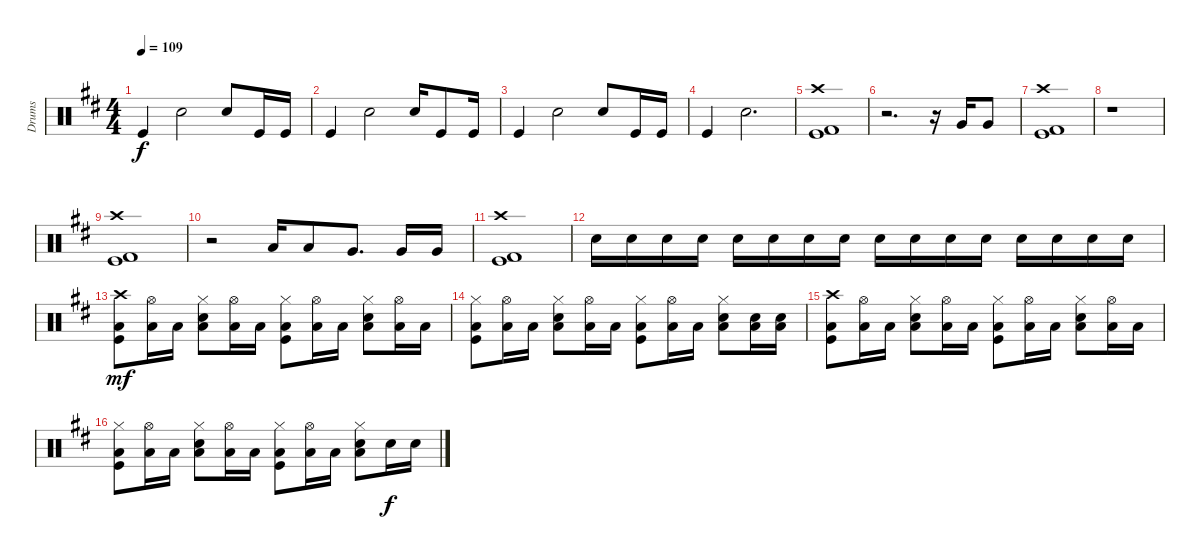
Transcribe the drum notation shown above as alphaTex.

\track ("Drums" "Drums") {instrument percussion}
\staff {score}
\articulation defaults
\ts (4 4)
\tempo 109
\clef neutral
\ks d "Kick (hit)".4{dy f} "Snare (hit) 2".2 "Snare (hit) 2".8 "Kick (hit)".16 "Kick (hit)".16
|
"Kick (hit)".4 "Snare (hit) 2".2 "Snare (hit) 2".16 "Kick (hit)".8 "Kick (hit)".16 |
"Kick (hit)".4 "Snare (hit) 2".2 "Snare (hit) 2".8 "Kick (hit)".16 "Kick (hit)".16 |
"Kick (hit)".4 "Snare (hit) 2".2{d} |
("Crash high (hit)" "Kick (hit) 2" "Kick (hit)").1 |
r.2{d} r.16 "Very Low Tom (hit)".16 "Very Low Tom (hit)".8 |
("Crash high (hit)" "Kick (hit)" "Kick (hit) 2").1 |
r.1 |
("Crash high (hit)" "Kick (hit)" "Kick (hit) 2").1 |
r.2 "Low Tom (hit)".16 "Low Tom (hit)".8 "Very Low Tom (hit)".8{d} "Very Low Tom (hit)".16 "Very Low Tom (hit)".16 |
("Crash high (hit)" "Kick (hit)" "Kick (hit) 2").1 |
"Snare (hit) 2".16 "Snare (hit) 2".16 "Snare (hit) 2".16 "Snare (hit) 2".16 "Snare (hit) 2".16 "Snare (hit) 2".16 "Snare (hit) 2".16 "Snare (hit) 2".16 "Snare (hit) 2".16 "Snare (hit) 2".16 "Snare (hit) 2".16 "Snare (hit) 2".16 "Snare (hit) 2".16 "Snare (hit) 2".16 "Snare (hit) 2".16 "Snare (hit) 2".16 |
("Crash high (hit)" "Kick (hit)" "Low Tom (hit)").8{dy mf} ("Hi-Hat (open)" "Low Tom (hit)").16 "Low Tom (hit)".16 ("Hi-Hat (closed)" "Snare (hit) 2" "Low Tom (hit)").8 ("Hi-Hat (open)" "Low Tom (hit)").16 "Low Tom (hit)".16 ("Hi-Hat (closed)" "Kick (hit)" "Low Tom (hit)").8 ("Hi-Hat (open)" "Low Tom (hit)").16 "Low Tom (hit)".16 ("Hi-Hat (closed)" "Snare (hit) 2" "Low Tom (hit)").8 ("Hi-Hat (open)" "Low Tom (hit)").16 "Low Tom (hit)".16 |
("Hi-Hat (closed)" "Kick (hit)" "Low Tom (hit)").8 ("Hi-Hat (open)" "Low Tom (hit)").16 "Low Tom (hit)".16 ("Hi-Hat (closed)" "Snare (hit) 2" "Low Tom (hit)").8 ("Hi-Hat (open)" "Low Tom (hit)").16 "Low Tom (hit)".16 ("Hi-Hat (closed)" "Kick (hit)" "Low Tom (hit)").8 ("Hi-Hat (open)" "Low Tom (hit)").16 "Low Tom (hit)".16 ("Hi-Hat (closed)" "Snare (hit) 2" "Low Tom (hit)").8 ("Snare (hit) 2" "Low Tom (hit)").16 ("Snare (hit) 2" "Low Tom (hit)").16 |
("Crash high (hit)" "Kick (hit)" "Low Tom (hit)").8 ("Hi-Hat (open)" "Low Tom (hit)").16 "Low Tom (hit)".16 ("Hi-Hat (closed)" "Snare (hit) 2" "Low Tom (hit)").8 ("Hi-Hat (open)" "Low Tom (hit)").16 "Low Tom (hit)".16 ("Hi-Hat (closed)" "Kick (hit)" "Low Tom (hit)").8 ("Hi-Hat (open)" "Low Tom (hit)").16 "Low Tom (hit)".16 ("Hi-Hat (closed)" "Snare (hit) 2" "Low Tom (hit)").8 ("Hi-Hat (open)" "Low Tom (hit)").16 "Low Tom (hit)".16 |
("Hi-Hat (closed)" "Kick (hit)" "Low Tom (hit)").8 ("Hi-Hat (open)" "Low Tom (hit)").16 "Low Tom (hit)".16 ("Hi-Hat (closed)" "Snare (hit) 2" "Low Tom (hit)").8 ("Hi-Hat (open)" "Low Tom (hit)").16 "Low Tom (hit)".16 ("Hi-Hat (closed)" "Kick (hit)" "Low Tom (hit)").8 ("Hi-Hat (open)" "Low Tom (hit)").16 "Low Tom (hit)".16 ("Hi-Hat (closed)" "Snare (hit) 2" "Low Tom (hit)").8 "Snare (hit) 2".16{dy f} "Snare (hit) 2".16
